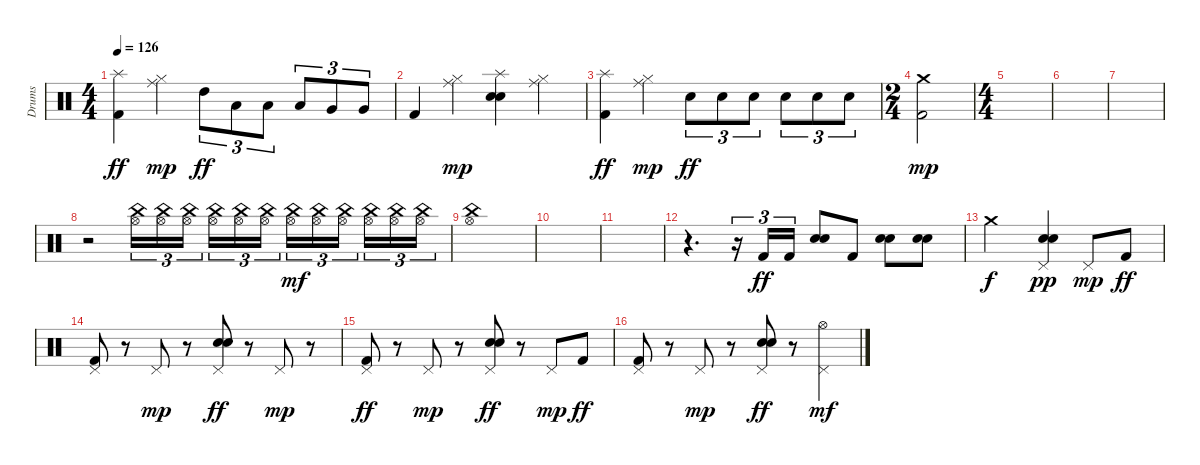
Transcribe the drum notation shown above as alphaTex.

\track ("Drums" "Drums") {instrument percussion}
\staff {score}
\articulation defaults
\ts (4 4)
\tempo 126
\clef neutral
\ks c
("Splash (hit)" "Kick (hit) 2").4{dy ff} ("Ride (middle)" "Hi-Hat (closed)").4{dy mp} "High Tom (hit)".8{tu (3 2) dy ff} "Low Tom (hit)".8{tu (3 2)} "Low Tom (hit)".8{tu (3 2)} "Low Tom (hit)".8{tu (3 2)} "Very Low Tom (hit)".8{tu (3 2)} "Very Low Tom (hit)".8{tu (3 2)} |
"Kick (hit) 2".4 ("Ride (middle)" "Hi-Hat (closed)").4{dy mp} ("Electric Snare (hit)" "Electric Snare (hit)" "Splash (hit)").4 ("Ride (middle)" "Hi-Hat (closed)").4 |
("Splash (hit)" "Kick (hit) 2").4{dy ff} ("Ride (middle)" "Hi-Hat (closed)").4{dy mp} "Electric Snare (hit)".8{tu (3 2) dy ff} "Electric Snare (hit)".8{tu (3 2)} "Electric Snare (hit)".8{tu (3 2)} "Electric Snare (hit)".8{tu (3 2)} "Electric Snare (hit)".8{tu (3 2)} "Electric Snare (hit)".8{tu (3 2)} |
\ts (2 4)
("Crash medium (hit)" "Kick (hit) 2").2{dy mp} |
\ts (4 4)
|
|
|
r.2 ("China (hit)" "Hi-Hat (open)").16{tu (3 2) volume 8} ("China (hit)" "Hi-Hat (open)").16{tu (3 2)} ("China (hit)" "Hi-Hat (open)").16{tu (3 2) beam splitsecondary} ("China (hit)" "Hi-Hat (open)").16{tu (3 2)} ("China (hit)" "Hi-Hat (open)").16{tu (3 2)} ("China (hit)" "Hi-Hat (open)").16{tu (3 2)} ("China (hit)" "Hi-Hat (open)").16{tu (3 2) dy mf volume 8} ("China (hit)" "Hi-Hat (open)").16{tu (3 2)} ("China (hit)" "Hi-Hat (open)").16{tu (3 2) beam splitsecondary} ("China (hit)" "Hi-Hat (open)").16{tu (3 2)} ("China (hit)" "Hi-Hat (open)").16{tu (3 2)} ("China (hit)" "Hi-Hat (open)").16{tu (3 2)} |
("China (hit)" "Hi-Hat (open)").1 |
|
|
r.4{d volume 12} r.16{tu (3 2)} "Kick (hit) 2".16{tu (3 2) dy ff} "Kick (hit) 2".16{tu (3 2)} ("Electric Snare (hit)" "Electric Snare (hit)").8 "Kick (hit) 2".8 ("Electric Snare (hit)" "Electric Snare (hit)").8 ("Electric Snare (hit)" "Electric Snare (hit)").8 |
"Crash medium (hit)".2{dy f} ("Electric Snare (hit)" "Electric Snare (hit)" "Pedal Hi-Hat (hit)").4{dy pp} "Pedal Hi-Hat (hit)".8{dy mp} "Kick (hit) 2".8{dy ff} |
("Pedal Hi-Hat (hit)" "Kick (hit) 2").8 r.8 "Pedal Hi-Hat (hit)".8{dy mp} r.8 ("Pedal Hi-Hat (hit)" "Electric Snare (hit)" "Electric Snare (hit)").8{dy ff} r.8 "Pedal Hi-Hat (hit)".8{dy mp} r.8 |
("Pedal Hi-Hat (hit)" "Kick (hit) 2").8{dy ff} r.8 "Pedal Hi-Hat (hit)".8{dy mp} r.8 ("Pedal Hi-Hat (hit)" "Electric Snare (hit)" "Electric Snare (hit)").8{dy ff} r.8 "Pedal Hi-Hat (hit)".8{dy mp} "Kick (hit) 2".8{dy ff} |
("Pedal Hi-Hat (hit)" "Kick (hit) 2").8 r.8 "Pedal Hi-Hat (hit)".8{dy mp} r.8 ("Pedal Hi-Hat (hit)" "Electric Snare (hit)" "Electric Snare (hit)").8{dy ff} r.8 ("Pedal Hi-Hat (hit)" "Hi-Hat (open)").4{dy mf}
